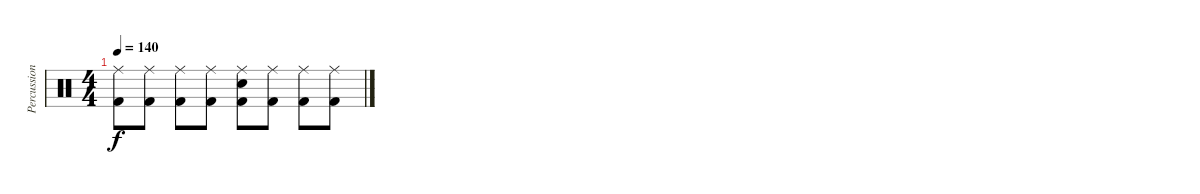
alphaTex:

\track ("Percussion" "Percussion") {instrument percussion}
\staff {score}
\articulation defaults
\ts (4 4)
\tempo 140
\clef neutral
\ks c
("Ride (middle)" "Kick (hit) 2").8{dy f} ("Ride (middle)" "Kick (hit) 2").8 ("Ride (middle)" "Kick (hit) 2").8 ("Ride (middle)" "Kick (hit) 2").8 ("Ride (middle)" "Snare (hit) 2" "Kick (hit) 2").8 ("Ride (middle)" "Kick (hit) 2").8 ("Ride (middle)" "Kick (hit) 2").8 ("Ride (middle)" "Kick (hit) 2").8
